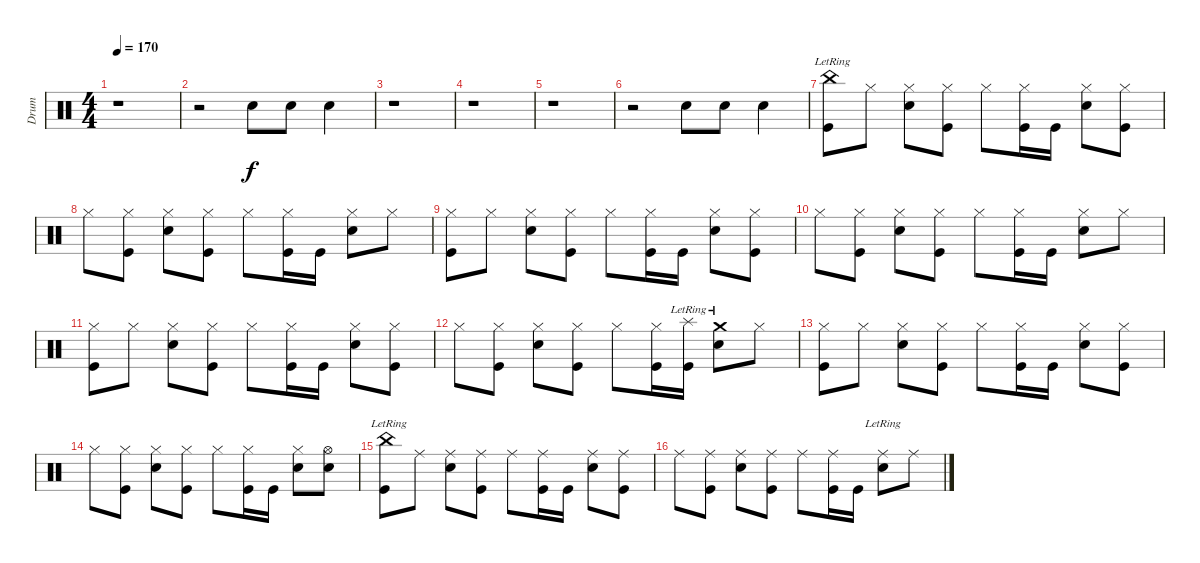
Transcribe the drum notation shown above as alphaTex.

\track ("Drum" "Drum") {instrument percussion}
\staff {score}
\articulation defaults
\ts (4 4)
\tempo 170
\clef neutral
\ks c
r.1{dy f} |
r.2 "Snare (hit) 2".8 "Snare (hit) 2".8 "Snare (hit) 2".4 |
r.1 |
r.1 |
r.1 |
r.2 "Snare (hit) 2".8 "Snare (hit) 2".8 "Snare (hit) 2".4 |
("China (hit)"{lr} "Kick (hit)").8 "Hi-Hat (closed)".8 ("Hi-Hat (closed)" "Snare (hit) 2").8 ("Hi-Hat (closed)" "Kick (hit)").8 "Hi-Hat (closed)".8 ("Hi-Hat (closed)" "Kick (hit)").16 "Kick (hit)".16 ("Hi-Hat (closed)" "Snare (hit) 2").8 ("Hi-Hat (closed)" "Kick (hit)").8 |
"Hi-Hat (closed)".8 ("Hi-Hat (closed)" "Kick (hit)").8 ("Hi-Hat (closed)" "Snare (hit) 2").8 ("Hi-Hat (closed)" "Kick (hit)").8 "Hi-Hat (closed)".8 ("Hi-Hat (closed)" "Kick (hit)").16 "Kick (hit)".16 ("Hi-Hat (closed)" "Snare (hit) 2").8 "Hi-Hat (closed)".8 |
("Hi-Hat (closed)" "Kick (hit)").8 "Hi-Hat (closed)".8 ("Hi-Hat (closed)" "Snare (hit) 2").8 ("Hi-Hat (closed)" "Kick (hit)").8 "Hi-Hat (closed)".8 ("Hi-Hat (closed)" "Kick (hit)").16 "Kick (hit)".16 ("Hi-Hat (closed)" "Snare (hit) 2").8 ("Hi-Hat (closed)" "Kick (hit)").8 |
"Hi-Hat (closed)".8 ("Hi-Hat (closed)" "Kick (hit)").8 ("Hi-Hat (closed)" "Snare (hit) 2").8 ("Hi-Hat (closed)" "Kick (hit)").8 "Hi-Hat (closed)".8 ("Hi-Hat (closed)" "Kick (hit)").16 "Kick (hit)".16 ("Hi-Hat (closed)" "Snare (hit) 2").8 "Hi-Hat (closed)".8 |
("Hi-Hat (closed)" "Kick (hit)").8 "Hi-Hat (closed)".8 ("Hi-Hat (closed)" "Snare (hit) 2").8 ("Hi-Hat (closed)" "Kick (hit)").8 "Hi-Hat (closed)".8 ("Hi-Hat (closed)" "Kick (hit)").16 "Kick (hit)".16 ("Hi-Hat (closed)" "Snare (hit) 2").8 ("Hi-Hat (closed)" "Kick (hit)").8 |
"Hi-Hat (closed)".8 ("Hi-Hat (closed)" "Kick (hit)").8 ("Hi-Hat (closed)" "Snare (hit) 2").8 ("Hi-Hat (closed)" "Kick (hit)").8 "Hi-Hat (closed)".8 ("Hi-Hat (closed)" "Kick (hit)").16 ("Splash (hit)"{lr} "Kick (hit)").16 ("Crash medium (hit)"{lr} "Snare (hit) 2").8 "Hi-Hat (closed)".8 |
("Hi-Hat (closed)" "Kick (hit)").8 "Hi-Hat (closed)".8 ("Hi-Hat (closed)" "Snare (hit) 2").8 ("Hi-Hat (closed)" "Kick (hit)").8 "Hi-Hat (closed)".8 ("Hi-Hat (closed)" "Kick (hit)").16 "Kick (hit)".16 ("Hi-Hat (closed)" "Snare (hit) 2").8 ("Hi-Hat (closed)" "Kick (hit)").8 |
"Hi-Hat (closed)".8 ("Hi-Hat (closed)" "Kick (hit)").8 ("Hi-Hat (closed)" "Snare (hit) 2").8 ("Hi-Hat (closed)" "Kick (hit)").8 "Hi-Hat (closed)".8 ("Hi-Hat (closed)" "Kick (hit)").16 "Kick (hit)".16 ("Hi-Hat (closed)" "Snare (hit) 2").8 ("Hi-Hat (open)" "Snare (hit) 2").8 |
("China (hit)"{lr} "Kick (hit)").8 "Ride (middle)".8 ("Ride (middle)" "Snare (hit) 2").8 ("Ride (middle)" "Kick (hit)").8 "Ride (middle)".8 ("Ride (middle)" "Kick (hit)").16 "Kick (hit)".16 ("Ride (middle)" "Snare (hit) 2").8 ("Ride (middle)" "Kick (hit)").8 |
"Ride (middle)".8 ("Ride (middle)" "Kick (hit)").8 ("Ride (middle)" "Snare (hit) 2").8 ("Ride (middle)" "Kick (hit)").8 "Ride (middle)".8 ("Ride (middle)" "Kick (hit)").16 "Kick (hit)".16 ("Ride (middle)"{lr} "Snare (hit) 2").8 "Ride (middle)".8
